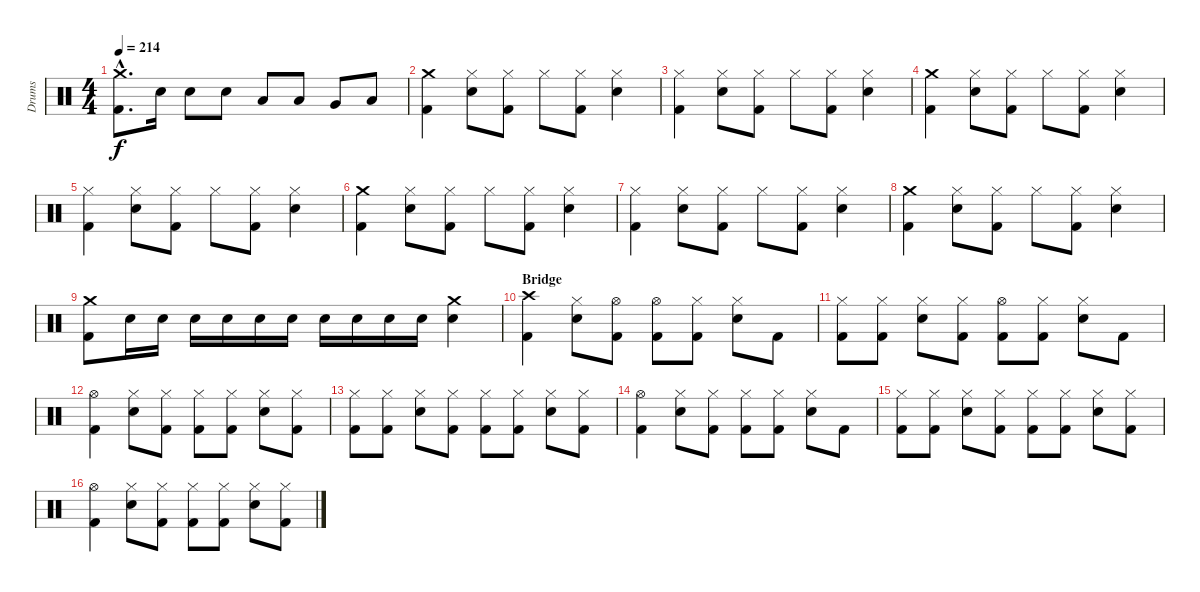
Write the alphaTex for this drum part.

\track ("Drums" "Drums") {instrument percussion}
\staff {score}
\articulation defaults
\ts (4 4)
\tempo 214
\clef neutral
\ks c
("Crash medium (hit)"{hac} "Kick (hit) 2"{hac}).8{d dy f} "Electric Snare (hit)".16 "Electric Snare (hit)".8 "Electric Snare (hit)".8 "Low Tom (hit)".8 "Low Tom (hit)".8 "Very Low Tom (hit)".8 "Low Floor Tom (hit)".8 |
("Crash medium (hit)" "Kick (hit) 2").4 ("Hi-Hat (closed)" "Electric Snare (hit)").8 ("Hi-Hat (closed)" "Kick (hit) 2").8 "Hi-Hat (closed)".8 ("Hi-Hat (closed)" "Kick (hit) 2").8 ("Hi-Hat (closed)" "Electric Snare (hit)").4 |
("Hi-Hat (closed)" "Kick (hit) 2").4 ("Hi-Hat (closed)" "Electric Snare (hit)").8 ("Hi-Hat (closed)" "Kick (hit) 2").8 "Hi-Hat (closed)".8 ("Hi-Hat (closed)" "Kick (hit) 2").8 ("Hi-Hat (closed)" "Electric Snare (hit)").4 |
("Crash medium (hit)" "Kick (hit) 2").4 ("Hi-Hat (closed)" "Electric Snare (hit)").8 ("Hi-Hat (closed)" "Kick (hit) 2").8 "Hi-Hat (closed)".8 ("Hi-Hat (closed)" "Kick (hit) 2").8 ("Hi-Hat (closed)" "Electric Snare (hit)").4 |
("Hi-Hat (closed)" "Kick (hit) 2").4 ("Hi-Hat (closed)" "Electric Snare (hit)").8 ("Hi-Hat (closed)" "Kick (hit) 2").8 "Hi-Hat (closed)".8 ("Hi-Hat (closed)" "Kick (hit) 2").8 ("Hi-Hat (closed)" "Electric Snare (hit)").4 |
("Crash medium (hit)" "Kick (hit) 2").4 ("Hi-Hat (closed)" "Electric Snare (hit)").8 ("Hi-Hat (closed)" "Kick (hit) 2").8 "Hi-Hat (closed)".8 ("Hi-Hat (closed)" "Kick (hit) 2").8 ("Hi-Hat (closed)" "Electric Snare (hit)").4 |
("Hi-Hat (closed)" "Kick (hit) 2").4 ("Hi-Hat (closed)" "Electric Snare (hit)").8 ("Hi-Hat (closed)" "Kick (hit) 2").8 "Hi-Hat (closed)".8 ("Hi-Hat (closed)" "Kick (hit) 2").8 ("Hi-Hat (closed)" "Electric Snare (hit)").4 |
("Crash medium (hit)" "Kick (hit) 2").4 ("Hi-Hat (closed)" "Electric Snare (hit)").8 ("Hi-Hat (closed)" "Kick (hit) 2").8 "Hi-Hat (closed)".8 ("Hi-Hat (closed)" "Kick (hit) 2").8 ("Hi-Hat (closed)" "Electric Snare (hit)").4 |
("Crash medium (hit)" "Kick (hit) 2").8 "Electric Snare (hit)".16 "Electric Snare (hit)".16 "Electric Snare (hit)".16 "Electric Snare (hit)".16 "Electric Snare (hit)".16 "Electric Snare (hit)".16 "Electric Snare (hit)".16 "Electric Snare (hit)".16 "Electric Snare (hit)".16 "Electric Snare (hit)".16 ("Crash medium (hit)" "Electric Snare (hit)").4 |
\section ("" "Bridge")
("Crash high (hit)" "Kick (hit) 2").4 ("Hi-Hat (closed)" "Electric Snare (hit)").8 ("Hi-Hat (open)" "Kick (hit) 2").8 ("Hi-Hat (open)" "Kick (hit) 2").8 ("Hi-Hat (closed)" "Kick (hit) 2").8 ("Hi-Hat (closed)" "Electric Snare (hit)").8 "Kick (hit) 2".8 |
("Hi-Hat (closed)" "Kick (hit) 2").8 ("Hi-Hat (closed)" "Kick (hit) 2").8 ("Hi-Hat (closed)" "Electric Snare (hit)").8 ("Hi-Hat (closed)" "Kick (hit) 2").8 ("Hi-Hat (open)" "Kick (hit) 2").8 ("Hi-Hat (closed)" "Kick (hit) 2").8 ("Hi-Hat (closed)" "Electric Snare (hit)").8 "Kick (hit) 2".8 |
("Hi-Hat (open)" "Kick (hit) 2").4 ("Hi-Hat (closed)" "Electric Snare (hit)").8 ("Hi-Hat (closed)" "Kick (hit) 2").8 ("Hi-Hat (closed)" "Kick (hit) 2").8 ("Hi-Hat (closed)" "Kick (hit) 2").8 ("Hi-Hat (closed)" "Electric Snare (hit)").8 ("Hi-Hat (closed)" "Kick (hit) 2").8 |
("Hi-Hat (closed)" "Kick (hit) 2").8 ("Hi-Hat (closed)" "Kick (hit) 2").8 ("Hi-Hat (closed)" "Electric Snare (hit)").8 ("Hi-Hat (closed)" "Kick (hit) 2").8 ("Hi-Hat (closed)" "Kick (hit) 2").8 ("Hi-Hat (closed)" "Kick (hit) 2").8 ("Hi-Hat (closed)" "Electric Snare (hit)").8 ("Hi-Hat (closed)" "Kick (hit) 2").8 |
("Hi-Hat (open)" "Kick (hit) 2").4 ("Hi-Hat (closed)" "Electric Snare (hit)").8 ("Hi-Hat (closed)" "Kick (hit) 2").8 ("Hi-Hat (closed)" "Kick (hit) 2").8 ("Hi-Hat (closed)" "Kick (hit) 2").8 ("Hi-Hat (closed)" "Electric Snare (hit)").8 "Kick (hit) 2".8 |
("Hi-Hat (closed)" "Kick (hit) 2").8 ("Hi-Hat (closed)" "Kick (hit) 2").8 ("Hi-Hat (closed)" "Electric Snare (hit)").8 ("Hi-Hat (closed)" "Kick (hit) 2").8 ("Hi-Hat (closed)" "Kick (hit) 2").8 ("Hi-Hat (closed)" "Kick (hit) 2").8 ("Hi-Hat (closed)" "Electric Snare (hit)").8 ("Hi-Hat (closed)" "Kick (hit) 2").8 |
("Hi-Hat (open)" "Kick (hit) 2").4 ("Hi-Hat (closed)" "Electric Snare (hit)").8 ("Hi-Hat (closed)" "Kick (hit) 2").8 ("Hi-Hat (closed)" "Kick (hit) 2").8 ("Hi-Hat (closed)" "Kick (hit) 2").8 ("Hi-Hat (closed)" "Electric Snare (hit)").8 ("Hi-Hat (closed)" "Kick (hit) 2").8
